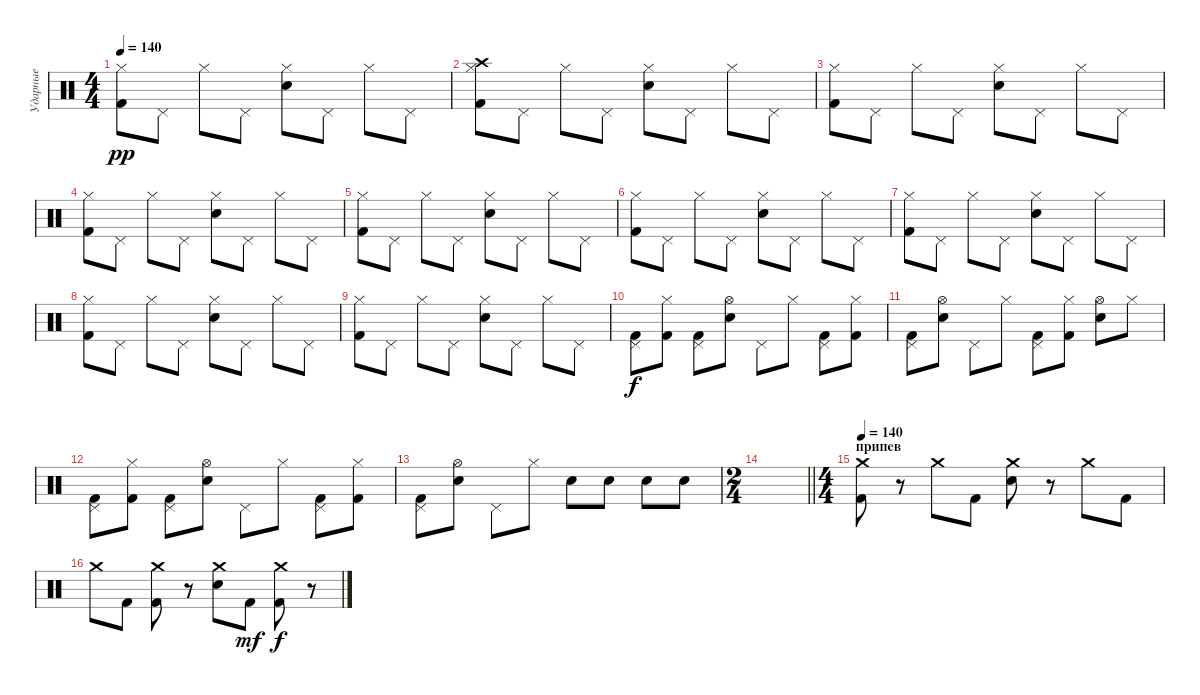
\track ("Ударные" "Ударные") {instrument percussion}
\staff {score}
\articulation defaults
\ts (4 4)
\tempo 140
\clef neutral
\ks c
("Hi-Hat (closed)" "Kick (hit) 2").8{dy pp} "Pedal Hi-Hat (hit)".8 "Hi-Hat (closed)".8 "Pedal Hi-Hat (hit)".8 ("Hi-Hat (closed)" "Snare (hit) 2").8 "Pedal Hi-Hat (hit)".8 "Hi-Hat (closed)".8 "Pedal Hi-Hat (hit)".8 |
("Hi-Hat (closed)" "Crash high (hit)" "Kick (hit) 2").8 "Pedal Hi-Hat (hit)".8 "Hi-Hat (closed)".8 "Pedal Hi-Hat (hit)".8 ("Hi-Hat (closed)" "Snare (hit) 2").8 "Pedal Hi-Hat (hit)".8 "Hi-Hat (closed)".8 "Pedal Hi-Hat (hit)".8 |
("Hi-Hat (closed)" "Kick (hit) 2").8 "Pedal Hi-Hat (hit)".8 "Hi-Hat (closed)".8 "Pedal Hi-Hat (hit)".8 ("Hi-Hat (closed)" "Snare (hit) 2").8 "Pedal Hi-Hat (hit)".8 "Hi-Hat (closed)".8 "Pedal Hi-Hat (hit)".8 |
("Hi-Hat (closed)" "Kick (hit) 2").8 "Pedal Hi-Hat (hit)".8 "Hi-Hat (closed)".8 "Pedal Hi-Hat (hit)".8 ("Hi-Hat (closed)" "Snare (hit) 2").8 "Pedal Hi-Hat (hit)".8 "Hi-Hat (closed)".8 "Pedal Hi-Hat (hit)".8 |
("Hi-Hat (closed)" "Kick (hit) 2").8 "Pedal Hi-Hat (hit)".8 "Hi-Hat (closed)".8 "Pedal Hi-Hat (hit)".8 ("Hi-Hat (closed)" "Snare (hit) 2").8 "Pedal Hi-Hat (hit)".8 "Hi-Hat (closed)".8 "Pedal Hi-Hat (hit)".8 |
("Hi-Hat (closed)" "Kick (hit) 2").8 "Pedal Hi-Hat (hit)".8 "Hi-Hat (closed)".8 "Pedal Hi-Hat (hit)".8 ("Hi-Hat (closed)" "Snare (hit) 2").8 "Pedal Hi-Hat (hit)".8 "Hi-Hat (closed)".8 "Pedal Hi-Hat (hit)".8 |
("Hi-Hat (closed)" "Kick (hit) 2").8 "Pedal Hi-Hat (hit)".8 "Hi-Hat (closed)".8 "Pedal Hi-Hat (hit)".8 ("Hi-Hat (closed)" "Snare (hit) 2").8 "Pedal Hi-Hat (hit)".8 "Hi-Hat (closed)".8 "Pedal Hi-Hat (hit)".8 |
("Hi-Hat (closed)" "Kick (hit) 2").8 "Pedal Hi-Hat (hit)".8 "Hi-Hat (closed)".8 "Pedal Hi-Hat (hit)".8 ("Hi-Hat (closed)" "Snare (hit) 2").8 "Pedal Hi-Hat (hit)".8 "Hi-Hat (closed)".8 "Pedal Hi-Hat (hit)".8 |
("Hi-Hat (closed)" "Kick (hit) 2").8 "Pedal Hi-Hat (hit)".8 "Hi-Hat (closed)".8 "Pedal Hi-Hat (hit)".8 ("Hi-Hat (closed)" "Snare (hit) 2").8 "Pedal Hi-Hat (hit)".8 "Hi-Hat (closed)".8 "Pedal Hi-Hat (hit)".8 |
("Pedal Hi-Hat (hit)" "Kick (hit) 2").8{dy f} ("Hi-Hat (closed)" "Kick (hit) 2").8 ("Pedal Hi-Hat (hit)" "Kick (hit) 2").8 ("Hi-Hat (open)" "Snare (hit) 2").8 "Pedal Hi-Hat (hit)".8 "Hi-Hat (closed)".8 ("Pedal Hi-Hat (hit)" "Kick (hit) 2").8 ("Hi-Hat (closed)" "Kick (hit) 2").8 |
("Pedal Hi-Hat (hit)" "Kick (hit) 2").8 ("Hi-Hat (open)" "Snare (hit) 2").8 "Pedal Hi-Hat (hit)".8 "Hi-Hat (closed)".8 ("Pedal Hi-Hat (hit)" "Kick (hit) 2").8 ("Hi-Hat (closed)" "Kick (hit) 2").8 ("Hi-Hat (open)" "Snare (hit) 2").8 "Hi-Hat (closed)".8 |
("Pedal Hi-Hat (hit)" "Kick (hit) 2").8 ("Hi-Hat (closed)" "Kick (hit) 2").8 ("Pedal Hi-Hat (hit)" "Kick (hit) 2").8 ("Hi-Hat (open)" "Snare (hit) 2").8 "Pedal Hi-Hat (hit)".8 "Hi-Hat (closed)".8 ("Pedal Hi-Hat (hit)" "Kick (hit) 2").8 ("Hi-Hat (closed)" "Kick (hit) 2").8 |
("Pedal Hi-Hat (hit)" "Kick (hit) 2").8 ("Hi-Hat (open)" "Snare (hit) 2").8 "Pedal Hi-Hat (hit)".8 "Hi-Hat (closed)".8 "Snare (hit) 2".8 "Snare (hit) 2".8 "Snare (hit) 2".8 "Snare (hit) 2".8 |
\ts (2 4)
\barLineRight lightlight
|
\ts (4 4)
\section ("" "припев")
\tempo 140
("Crash medium (hit)" "Kick (hit) 2").8 r.8 "Crash medium (hit)".8 "Kick (hit) 2".8 ("Crash medium (hit)" "Snare (hit) 2").8 r.8 "Crash medium (hit)".8 "Kick (hit) 2".8 |
"Crash medium (hit)".8 "Kick (hit) 2".8 ("Crash medium (hit)" "Kick (hit) 2").8 r.8 ("Crash medium (hit)" "Snare (hit) 2").8 "Kick (hit) 2".8{dy mf} ("Crash medium (hit)" "Kick (hit) 2").8{dy f} r.8
